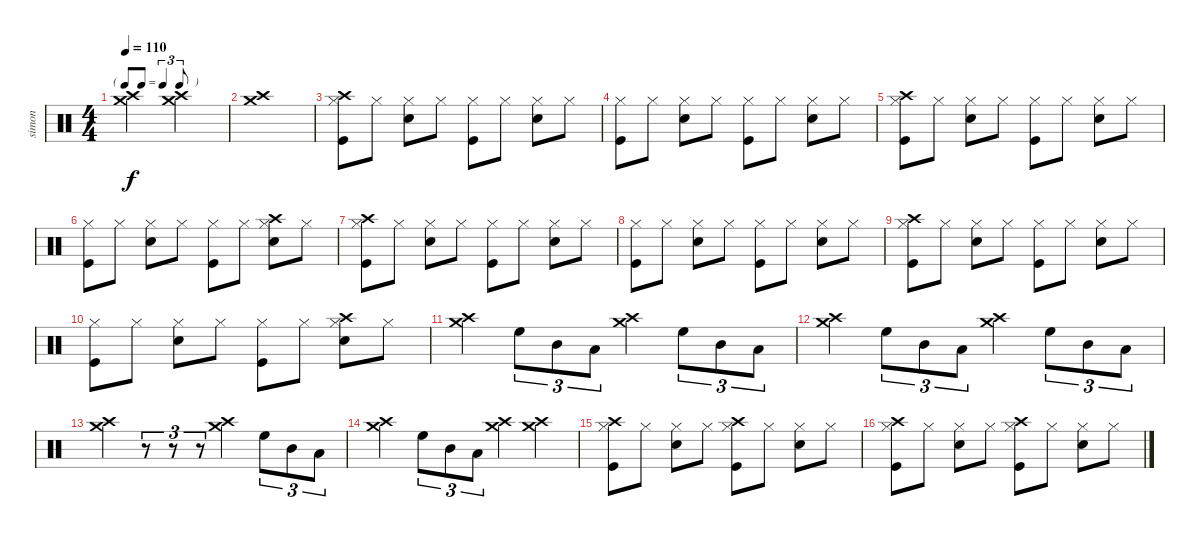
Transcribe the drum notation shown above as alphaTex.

\track ("simon" "simon") {instrument percussion}
\staff {score}
\articulation defaults
\ts (4 4)
\tf triplet8th
\tempo 110
\clef neutral
\ks c
("Crash medium (hit)" "Crash high (hit)").2{dy f} ("Crash medium (hit)" "Crash high (hit)").2 |
("Crash high (hit)" "Crash medium (hit)").1 |
("Hi-Hat (closed)" "Kick (hit)" "Crash high (hit)").8 "Hi-Hat (closed)".8 ("Hi-Hat (closed)" "Snare (hit) 2").8 "Hi-Hat (closed)".8 ("Hi-Hat (closed)" "Kick (hit)").8 "Hi-Hat (closed)".8 ("Hi-Hat (closed)" "Snare (hit) 2").8 "Hi-Hat (closed)".8 |
("Hi-Hat (closed)" "Kick (hit)").8 "Hi-Hat (closed)".8 ("Hi-Hat (closed)" "Snare (hit) 2").8 "Hi-Hat (closed)".8 ("Hi-Hat (closed)" "Kick (hit)").8 "Hi-Hat (closed)".8 ("Hi-Hat (closed)" "Snare (hit) 2").8 "Hi-Hat (closed)".8 |
("Hi-Hat (closed)" "Kick (hit)" "Crash high (hit)").8 "Hi-Hat (closed)".8 ("Hi-Hat (closed)" "Snare (hit) 2").8 "Hi-Hat (closed)".8 ("Hi-Hat (closed)" "Kick (hit)").8 "Hi-Hat (closed)".8 ("Hi-Hat (closed)" "Snare (hit) 2").8 "Hi-Hat (closed)".8 |
("Hi-Hat (closed)" "Kick (hit)").8 "Hi-Hat (closed)".8 ("Hi-Hat (closed)" "Snare (hit) 2").8 "Hi-Hat (closed)".8 ("Hi-Hat (closed)" "Kick (hit)").8 "Hi-Hat (closed)".8 ("Hi-Hat (closed)" "Snare (hit) 2" "Crash high (hit)").8 "Hi-Hat (closed)".8 |
("Hi-Hat (closed)" "Kick (hit)" "Crash high (hit)").8 "Hi-Hat (closed)".8 ("Hi-Hat (closed)" "Snare (hit) 2").8 "Hi-Hat (closed)".8 ("Hi-Hat (closed)" "Kick (hit)").8 "Hi-Hat (closed)".8 ("Hi-Hat (closed)" "Snare (hit) 2").8 "Hi-Hat (closed)".8 |
("Hi-Hat (closed)" "Kick (hit)").8 "Hi-Hat (closed)".8 ("Hi-Hat (closed)" "Snare (hit) 2").8 "Hi-Hat (closed)".8 ("Hi-Hat (closed)" "Kick (hit)").8 "Hi-Hat (closed)".8 ("Hi-Hat (closed)" "Snare (hit) 2").8 "Hi-Hat (closed)".8 |
("Hi-Hat (closed)" "Kick (hit)" "Crash high (hit)").8 "Hi-Hat (closed)".8 ("Hi-Hat (closed)" "Snare (hit) 2").8 "Hi-Hat (closed)".8 ("Hi-Hat (closed)" "Kick (hit)").8 "Hi-Hat (closed)".8 ("Hi-Hat (closed)" "Snare (hit) 2").8 "Hi-Hat (closed)".8 |
("Hi-Hat (closed)" "Kick (hit)").8 "Hi-Hat (closed)".8 ("Hi-Hat (closed)" "Snare (hit) 2").8 "Hi-Hat (closed)".8 ("Hi-Hat (closed)" "Kick (hit)").8 "Hi-Hat (closed)".8 ("Hi-Hat (closed)" "Snare (hit) 2" "Crash high (hit)").8 "Hi-Hat (closed)".8 |
("Crash high (hit)" "Crash medium (hit)").4 "High Floor Tom (hit)".8{tu (3 2)} "Mid Tom (hit)".8{tu (3 2)} "Low Tom (hit)".8{tu (3 2)} ("Crash high (hit)" "Crash medium (hit)").4 "High Floor Tom (hit)".8{tu (3 2)} "Mid Tom (hit)".8{tu (3 2)} "Low Tom (hit)".8{tu (3 2)} |
("Crash high (hit)" "Crash medium (hit)").4 "High Floor Tom (hit)".8{tu (3 2)} "Mid Tom (hit)".8{tu (3 2)} "Low Tom (hit)".8{tu (3 2)} ("Crash high (hit)" "Crash medium (hit)").4 "High Floor Tom (hit)".8{tu (3 2)} "Mid Tom (hit)".8{tu (3 2)} "Low Tom (hit)".8{tu (3 2)} |
("Crash high (hit)" "Crash medium (hit)").4 r.8{tu (3 2)} r.8{tu (3 2)} r.8{tu (3 2)} ("Crash high (hit)" "Crash medium (hit)").4 "High Floor Tom (hit)".8{tu (3 2)} "Mid Tom (hit)".8{tu (3 2)} "Low Tom (hit)".8{tu (3 2)} |
("Crash high (hit)" "Crash medium (hit)").4 "High Floor Tom (hit)".8{tu (3 2)} "Mid Tom (hit)".8{tu (3 2)} "Low Tom (hit)".8{tu (3 2)} ("Crash high (hit)" "Crash medium (hit)").4 ("Crash high (hit)" "Crash medium (hit)").4 |
("Hi-Hat (closed)" "Kick (hit)" "Crash high (hit)").8 "Hi-Hat (closed)".8 ("Hi-Hat (closed)" "Snare (hit) 2").8 "Hi-Hat (closed)".8 ("Hi-Hat (closed)" "Kick (hit)" "Crash high (hit)").8 "Hi-Hat (closed)".8 ("Hi-Hat (closed)" "Snare (hit) 2").8 "Hi-Hat (closed)".8 |
("Hi-Hat (closed)" "Kick (hit)" "Crash high (hit)").8 "Hi-Hat (closed)".8 ("Hi-Hat (closed)" "Snare (hit) 2").8 "Hi-Hat (closed)".8 ("Hi-Hat (closed)" "Kick (hit)" "Crash high (hit)").8 "Hi-Hat (closed)".8 ("Hi-Hat (closed)" "Snare (hit) 2").8 "Hi-Hat (closed)".8
